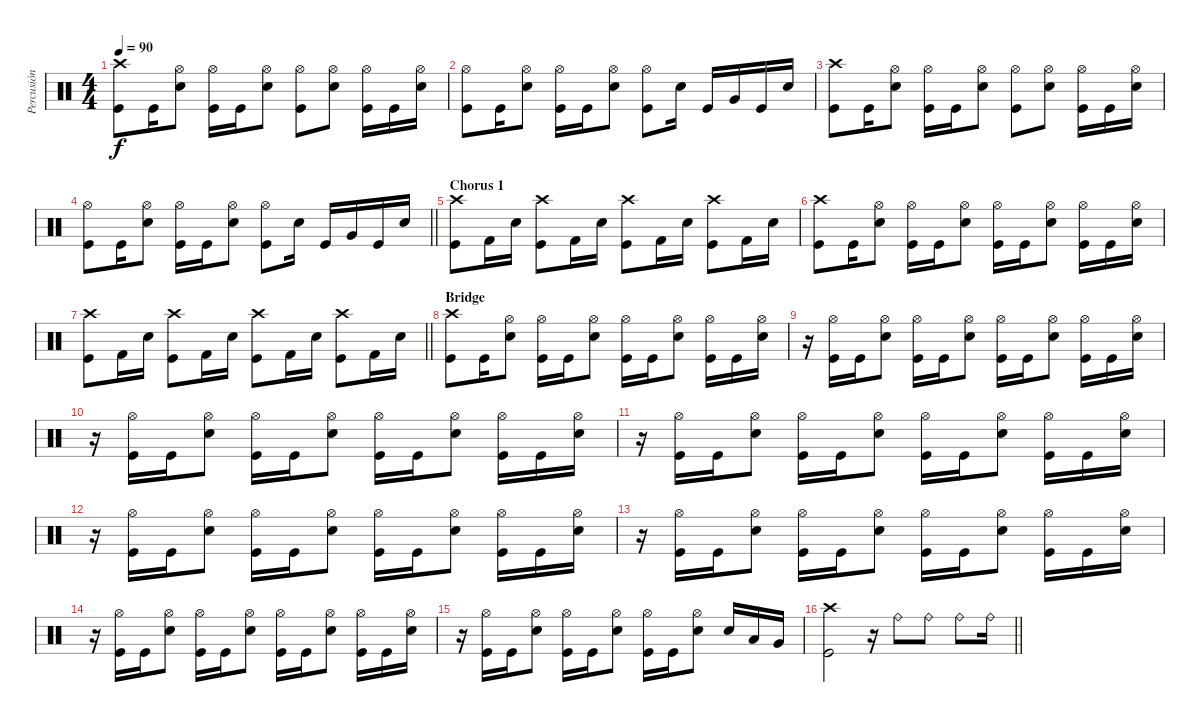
\track ("Percusión" "Percusión") {instrument percussion}
\staff
\articulation defaults
\ts (4 4)
\tempo 90
\clef neutral
\ks c
("Kick (hit)" "Crash high (hit)").8{dy f} "Kick (hit)".16 ("Hi-Hat (open)" "Electric Snare (hit)").8 ("Kick (hit)" "Hi-Hat (open)").16 "Kick (hit)".16 ("Hi-Hat (open)" "Electric Snare (hit)").8 ("Kick (hit)" "Hi-Hat (open)").8 ("Hi-Hat (open)" "Electric Snare (hit)").8 ("Kick (hit)" "Hi-Hat (open)").16 "Kick (hit)".16 ("Hi-Hat (open)" "Electric Snare (hit)").16 |
("Kick (hit)" "Hi-Hat (open)").8 "Kick (hit)".16 ("Hi-Hat (open)" "Electric Snare (hit)").8 ("Kick (hit)" "Hi-Hat (open)").16 "Kick (hit)".16 ("Hi-Hat (open)" "Electric Snare (hit)").8 ("Kick (hit)" "Hi-Hat (open)").8 "Electric Snare (hit)".16 "Kick (hit)".16 "Very Low Tom (hit)".16 "Kick (hit)".16 "Electric Snare (hit)".16 |
("Kick (hit)" "Crash high (hit)").8 "Kick (hit)".16 ("Hi-Hat (open)" "Electric Snare (hit)").8 ("Kick (hit)" "Hi-Hat (open)").16 "Kick (hit)".16 ("Hi-Hat (open)" "Electric Snare (hit)").8 ("Kick (hit)" "Hi-Hat (open)").8 ("Hi-Hat (open)" "Electric Snare (hit)").8 ("Kick (hit)" "Hi-Hat (open)").16 "Kick (hit)".16 ("Hi-Hat (open)" "Electric Snare (hit)").16 |
\barLineRight lightlight
("Kick (hit)" "Hi-Hat (open)").8 "Kick (hit)".16 ("Hi-Hat (open)" "Electric Snare (hit)").8 ("Kick (hit)" "Hi-Hat (open)").16 "Kick (hit)".16 ("Hi-Hat (open)" "Electric Snare (hit)").8 ("Kick (hit)" "Hi-Hat (open)").8 "Electric Snare (hit)".16 "Kick (hit)".16 "Very Low Tom (hit)".16 "Kick (hit)".16 "Electric Snare (hit)".16 |
\section ("" "Chorus 1")
("Kick (hit)" "Crash high (hit)").8 "Kick (hit) 2".16 "Electric Snare (hit)".16 ("Kick (hit)" "Crash high (hit)").8 "Kick (hit) 2".16 "Electric Snare (hit)".16 ("Kick (hit)" "Crash high (hit)").8 "Kick (hit) 2".16 "Electric Snare (hit)".16 ("Kick (hit)" "Crash high (hit)").8 "Kick (hit) 2".16 "Electric Snare (hit)".16 |
("Kick (hit)" "Crash high (hit)").8 "Kick (hit)".16 ("Hi-Hat (open)" "Electric Snare (hit)").8 ("Kick (hit)" "Hi-Hat (open)").16 "Kick (hit)".16 ("Hi-Hat (open)" "Electric Snare (hit)").8 ("Kick (hit)" "Hi-Hat (open)").16 "Kick (hit)".16 ("Hi-Hat (open)" "Electric Snare (hit)").8 ("Kick (hit)" "Hi-Hat (open)").16 "Kick (hit)".16 ("Hi-Hat (open)" "Electric Snare (hit)").16 |
\barLineRight lightlight
("Kick (hit)" "Crash high (hit)").8 "Kick (hit) 2".16 "Electric Snare (hit)".16 ("Kick (hit)" "Crash high (hit)").8 "Kick (hit) 2".16 "Electric Snare (hit)".16 ("Kick (hit)" "Crash high (hit)").8 "Kick (hit) 2".16 "Electric Snare (hit)".16 ("Kick (hit)" "Crash high (hit)").8 "Kick (hit) 2".16 "Electric Snare (hit)".16 |
\section ("" "Bridge")
("Kick (hit)" "Crash high (hit)").8 "Kick (hit)".16 ("Hi-Hat (open)" "Electric Snare (hit)").8 ("Kick (hit)" "Hi-Hat (open)").16 "Kick (hit)".16 ("Hi-Hat (open)" "Electric Snare (hit)").8 ("Kick (hit)" "Hi-Hat (open)").16 "Kick (hit)".16 ("Hi-Hat (open)" "Electric Snare (hit)").8 ("Kick (hit)" "Hi-Hat (open)").16 "Kick (hit)".16 ("Hi-Hat (open)" "Electric Snare (hit)").16 |
r.16 ("Kick (hit)" "Hi-Hat (open)").16 "Kick (hit)".16 ("Hi-Hat (open)" "Electric Snare (hit)").8 ("Kick (hit)" "Hi-Hat (open)").16 "Kick (hit)".16 ("Hi-Hat (open)" "Electric Snare (hit)").8 ("Kick (hit)" "Hi-Hat (open)").16 "Kick (hit)".16 ("Hi-Hat (open)" "Electric Snare (hit)").8 ("Kick (hit)" "Hi-Hat (open)").16 "Kick (hit)".16 ("Hi-Hat (open)" "Electric Snare (hit)").16 |
r.16 ("Kick (hit)" "Hi-Hat (open)").16 "Kick (hit)".16 ("Hi-Hat (open)" "Electric Snare (hit)").8 ("Kick (hit)" "Hi-Hat (open)").16 "Kick (hit)".16 ("Hi-Hat (open)" "Electric Snare (hit)").8 ("Kick (hit)" "Hi-Hat (open)").16 "Kick (hit)".16 ("Hi-Hat (open)" "Electric Snare (hit)").8 ("Kick (hit)" "Hi-Hat (open)").16 "Kick (hit)".16 ("Hi-Hat (open)" "Electric Snare (hit)").16 |
r.16 ("Kick (hit)" "Hi-Hat (open)").16 "Kick (hit)".16 ("Hi-Hat (open)" "Electric Snare (hit)").8 ("Kick (hit)" "Hi-Hat (open)").16 "Kick (hit)".16 ("Hi-Hat (open)" "Electric Snare (hit)").8 ("Kick (hit)" "Hi-Hat (open)").16 "Kick (hit)".16 ("Hi-Hat (open)" "Electric Snare (hit)").8 ("Kick (hit)" "Hi-Hat (open)").16 "Kick (hit)".16 ("Hi-Hat (open)" "Electric Snare (hit)").16 |
r.16 ("Kick (hit)" "Hi-Hat (open)").16 "Kick (hit)".16 ("Hi-Hat (open)" "Electric Snare (hit)").8 ("Kick (hit)" "Hi-Hat (open)").16 "Kick (hit)".16 ("Hi-Hat (open)" "Electric Snare (hit)").8 ("Kick (hit)" "Hi-Hat (open)").16 "Kick (hit)".16 ("Hi-Hat (open)" "Electric Snare (hit)").8 ("Kick (hit)" "Hi-Hat (open)").16 "Kick (hit)".16 ("Hi-Hat (open)" "Electric Snare (hit)").16 |
r.16 ("Kick (hit)" "Hi-Hat (open)").16 "Kick (hit)".16 ("Hi-Hat (open)" "Electric Snare (hit)").8 ("Kick (hit)" "Hi-Hat (open)").16 "Kick (hit)".16 ("Hi-Hat (open)" "Electric Snare (hit)").8 ("Kick (hit)" "Hi-Hat (open)").16 "Kick (hit)".16 ("Hi-Hat (open)" "Electric Snare (hit)").8 ("Kick (hit)" "Hi-Hat (open)").16 "Kick (hit)".16 ("Hi-Hat (open)" "Electric Snare (hit)").16 |
r.16 ("Kick (hit)" "Hi-Hat (open)").16 "Kick (hit)".16 ("Hi-Hat (open)" "Electric Snare (hit)").8 ("Kick (hit)" "Hi-Hat (open)").16 "Kick (hit)".16 ("Hi-Hat (open)" "Electric Snare (hit)").8 ("Kick (hit)" "Hi-Hat (open)").16 "Kick (hit)".16 ("Hi-Hat (open)" "Electric Snare (hit)").8 ("Kick (hit)" "Hi-Hat (open)").16 "Kick (hit)".16 ("Hi-Hat (open)" "Electric Snare (hit)").16 |
r.16 ("Kick (hit)" "Hi-Hat (open)").16 "Kick (hit)".16 ("Hi-Hat (open)" "Electric Snare (hit)").8 ("Kick (hit)" "Hi-Hat (open)").16 "Kick (hit)".16 ("Hi-Hat (open)" "Electric Snare (hit)").8 ("Kick (hit)" "Hi-Hat (open)").16 "Kick (hit)".16 ("Hi-Hat (open)" "Electric Snare (hit)").8 "Electric Snare (hit)".16 "Low Tom (hit)".16 "Very Low Tom (hit)".16 |
\barLineRight lightlight
("Kick (hit)" "Crash high (hit)").2 r.16 "Ride (bell)".8 "Ride (bell)".8 "Ride (bell)".8 "Ride (bell)".16
